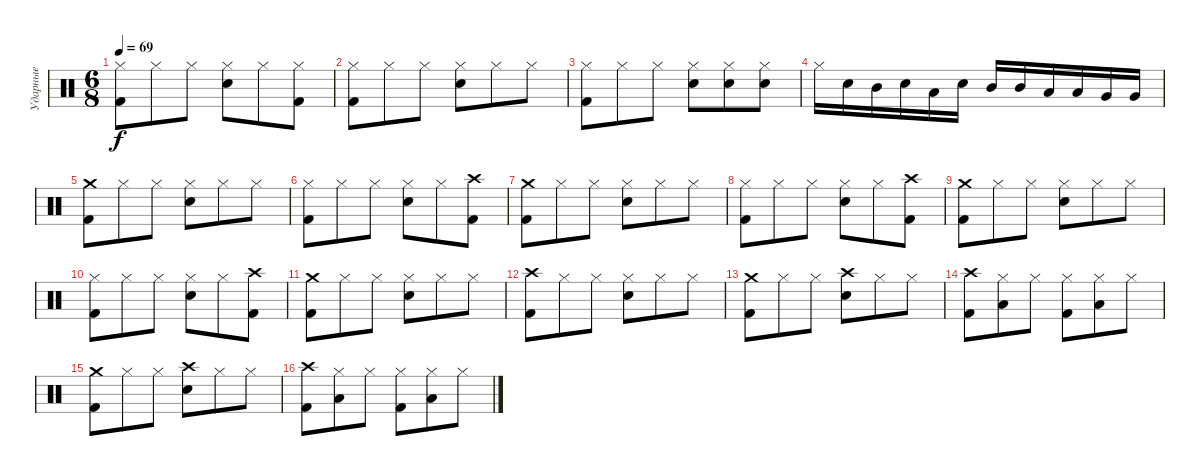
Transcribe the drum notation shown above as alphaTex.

\track ("Ударные" "Ударные") {instrument percussion}
\staff {score}
\articulation defaults
\ts (6 8)
\tempo 69
\clef neutral
\ks c
("Hi-Hat (closed)" "Kick (hit) 2").8{dy f} "Hi-Hat (closed)".8 "Hi-Hat (closed)".8 ("Hi-Hat (closed)" "Snare (hit) 2").8 "Hi-Hat (closed)".8 ("Hi-Hat (closed)" "Kick (hit) 2").8 |
("Hi-Hat (closed)" "Kick (hit) 2").8 "Hi-Hat (closed)".8 "Hi-Hat (closed)".8 ("Hi-Hat (closed)" "Snare (hit) 2").8 "Hi-Hat (closed)".8 "Hi-Hat (closed)".8 |
("Hi-Hat (closed)" "Kick (hit) 2").8 "Hi-Hat (closed)".8 "Hi-Hat (closed)".8 ("Hi-Hat (closed)" "Snare (hit) 2").8 ("Hi-Hat (closed)" "Snare (hit) 2").8 ("Hi-Hat (closed)" "Snare (hit) 2").8 |
"Hi-Hat (closed)".16 "Snare (hit) 2".16 "Mid Tom (hit)".16 "Snare (hit) 2".16 "Low Tom (hit)".16 "Snare (hit) 2".16 "Mid Tom (hit)".16 "Mid Tom (hit)".16 "Low Tom (hit)".16 "Low Tom (hit)".16 "Very Low Tom (hit)".16 "Very Low Tom (hit)".16 |
("Crash medium (hit)" "Kick (hit) 2").8 "Hi-Hat (closed)".8 "Hi-Hat (closed)".8 ("Hi-Hat (closed)" "Snare (hit) 2").8 "Hi-Hat (closed)".8 "Hi-Hat (closed)".8 |
("Hi-Hat (closed)" "Kick (hit) 2").8 "Hi-Hat (closed)".8 "Hi-Hat (closed)".8 ("Hi-Hat (closed)" "Snare (hit) 2").8 "Hi-Hat (closed)".8 ("Crash high (hit)" "Kick (hit) 2").8 |
("Crash medium (hit)" "Kick (hit) 2").8 "Hi-Hat (closed)".8 "Hi-Hat (closed)".8 ("Hi-Hat (closed)" "Snare (hit) 2").8 "Hi-Hat (closed)".8 "Hi-Hat (closed)".8 |
("Hi-Hat (closed)" "Kick (hit) 2").8 "Hi-Hat (closed)".8 "Hi-Hat (closed)".8 ("Hi-Hat (closed)" "Snare (hit) 2").8 "Hi-Hat (closed)".8 ("Crash high (hit)" "Kick (hit) 2").8 |
("Crash medium (hit)" "Kick (hit) 2").8 "Hi-Hat (closed)".8 "Hi-Hat (closed)".8 ("Hi-Hat (closed)" "Snare (hit) 2").8 "Hi-Hat (closed)".8 "Hi-Hat (closed)".8 |
("Hi-Hat (closed)" "Kick (hit) 2").8 "Hi-Hat (closed)".8 "Hi-Hat (closed)".8 ("Hi-Hat (closed)" "Snare (hit) 2").8 "Hi-Hat (closed)".8 ("Crash high (hit)" "Kick (hit) 2").8 |
("Crash medium (hit)" "Kick (hit) 2").8 "Hi-Hat (closed)".8 "Hi-Hat (closed)".8 ("Hi-Hat (closed)" "Snare (hit) 2").8 "Hi-Hat (closed)".8 "Hi-Hat (closed)".8 |
("Crash high (hit)" "Kick (hit) 2").8 "Hi-Hat (closed)".8 "Hi-Hat (closed)".8 ("Hi-Hat (closed)" "Snare (hit) 2").8 "Hi-Hat (closed)".8 "Hi-Hat (closed)".8 |
("Crash medium (hit)" "Kick (hit) 2").8 "Hi-Hat (closed)".8 "Hi-Hat (closed)".8 ("Crash high (hit)" "Snare (hit) 2").8 "Hi-Hat (closed)".8 "Hi-Hat (closed)".8 |
("Crash high (hit)" "Kick (hit) 2").8 ("Hi-Hat (closed)" "Low Tom (hit)").8 "Hi-Hat (closed)".8 ("Hi-Hat (closed)" "Kick (hit) 2").8 ("Hi-Hat (closed)" "Low Tom (hit)").8 "Hi-Hat (closed)".8 |
("Crash medium (hit)" "Kick (hit) 2").8 "Hi-Hat (closed)".8 "Hi-Hat (closed)".8 ("Crash high (hit)" "Snare (hit) 2").8 "Hi-Hat (closed)".8 "Hi-Hat (closed)".8 |
("Crash high (hit)" "Kick (hit) 2").8 ("Hi-Hat (closed)" "Low Tom (hit)").8 "Hi-Hat (closed)".8 ("Hi-Hat (closed)" "Kick (hit) 2").8 ("Hi-Hat (closed)" "Low Tom (hit)").8 "Hi-Hat (closed)".8
